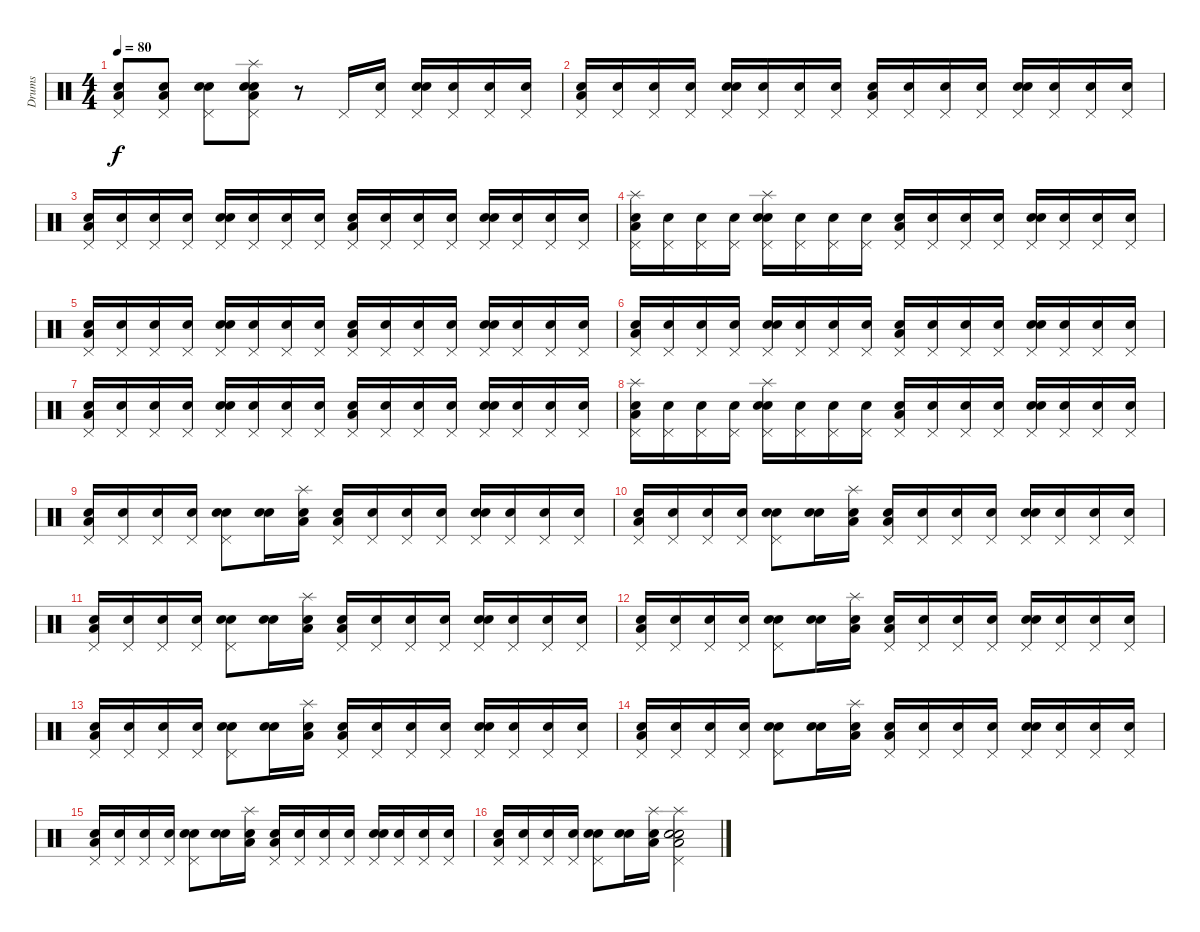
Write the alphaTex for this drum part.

\track ("Drums" "Drums") {instrument percussion}
\staff {score}
\articulation defaults
\ts (4 4)
\tempo 80
\clef neutral
\ks c
("Snare (hit)" "Low Floor Tom (hit)" "Pedal Hi-Hat (hit)").8{dy f} ("Snare (hit)" "Low Floor Tom (hit)" "Pedal Hi-Hat (hit)").8 ("Snare (hit)" "Electric Snare (hit)" "Pedal Hi-Hat (hit)").8 ("Snare (hit)" "Electric Snare (hit)" "Low Floor Tom (hit)" "Pedal Hi-Hat (hit)" "Splash (hit)").8 r.8 "Pedal Hi-Hat (hit)".16 ("Snare (hit)" "Pedal Hi-Hat (hit)").16 ("Snare (hit)" "Electric Snare (hit)" "Pedal Hi-Hat (hit)").16 ("Snare (hit)" "Pedal Hi-Hat (hit)").16 ("Snare (hit)" "Pedal Hi-Hat (hit)").16 ("Snare (hit)" "Pedal Hi-Hat (hit)").16 |
("Snare (hit)" "Low Floor Tom (hit)" "Pedal Hi-Hat (hit)").16 ("Snare (hit)" "Pedal Hi-Hat (hit)").16 ("Snare (hit)" "Pedal Hi-Hat (hit)").16 ("Snare (hit)" "Pedal Hi-Hat (hit)").16 ("Snare (hit)" "Electric Snare (hit)" "Pedal Hi-Hat (hit)").16 ("Snare (hit)" "Pedal Hi-Hat (hit)").16 ("Snare (hit)" "Pedal Hi-Hat (hit)").16 ("Snare (hit)" "Pedal Hi-Hat (hit)").16 ("Snare (hit)" "Low Floor Tom (hit)" "Pedal Hi-Hat (hit)").16 ("Snare (hit)" "Pedal Hi-Hat (hit)").16 ("Snare (hit)" "Pedal Hi-Hat (hit)").16 ("Snare (hit)" "Pedal Hi-Hat (hit)").16 ("Snare (hit)" "Electric Snare (hit)" "Pedal Hi-Hat (hit)").16 ("Snare (hit)" "Pedal Hi-Hat (hit)").16 ("Snare (hit)" "Pedal Hi-Hat (hit)").16 ("Snare (hit)" "Pedal Hi-Hat (hit)").16 |
("Snare (hit)" "Low Floor Tom (hit)" "Pedal Hi-Hat (hit)").16 ("Snare (hit)" "Pedal Hi-Hat (hit)").16 ("Snare (hit)" "Pedal Hi-Hat (hit)").16 ("Snare (hit)" "Pedal Hi-Hat (hit)").16 ("Snare (hit)" "Electric Snare (hit)" "Pedal Hi-Hat (hit)").16 ("Snare (hit)" "Pedal Hi-Hat (hit)").16 ("Snare (hit)" "Pedal Hi-Hat (hit)").16 ("Snare (hit)" "Pedal Hi-Hat (hit)").16 ("Snare (hit)" "Low Floor Tom (hit)" "Pedal Hi-Hat (hit)").16 ("Snare (hit)" "Pedal Hi-Hat (hit)").16 ("Snare (hit)" "Pedal Hi-Hat (hit)").16 ("Snare (hit)" "Pedal Hi-Hat (hit)").16 ("Snare (hit)" "Electric Snare (hit)" "Pedal Hi-Hat (hit)").16 ("Snare (hit)" "Pedal Hi-Hat (hit)").16 ("Snare (hit)" "Pedal Hi-Hat (hit)").16 ("Snare (hit)" "Pedal Hi-Hat (hit)").16 |
("Snare (hit)" "Low Floor Tom (hit)" "Pedal Hi-Hat (hit)" "Splash (hit)").16 ("Snare (hit)" "Pedal Hi-Hat (hit)").16 ("Snare (hit)" "Pedal Hi-Hat (hit)").16 ("Snare (hit)" "Pedal Hi-Hat (hit)").16 ("Snare (hit)" "Electric Snare (hit)" "Pedal Hi-Hat (hit)" "Splash (hit)").16 ("Snare (hit)" "Pedal Hi-Hat (hit)").16 ("Snare (hit)" "Pedal Hi-Hat (hit)").16 ("Snare (hit)" "Pedal Hi-Hat (hit)").16 ("Snare (hit)" "Low Floor Tom (hit)" "Pedal Hi-Hat (hit)").16 ("Snare (hit)" "Pedal Hi-Hat (hit)").16 ("Snare (hit)" "Pedal Hi-Hat (hit)").16 ("Snare (hit)" "Pedal Hi-Hat (hit)").16 ("Snare (hit)" "Electric Snare (hit)" "Pedal Hi-Hat (hit)").16 ("Snare (hit)" "Pedal Hi-Hat (hit)").16 ("Snare (hit)" "Pedal Hi-Hat (hit)").16 ("Snare (hit)" "Pedal Hi-Hat (hit)").16 |
("Snare (hit)" "Low Floor Tom (hit)" "Pedal Hi-Hat (hit)").16 ("Snare (hit)" "Pedal Hi-Hat (hit)").16 ("Snare (hit)" "Pedal Hi-Hat (hit)").16 ("Snare (hit)" "Pedal Hi-Hat (hit)").16 ("Snare (hit)" "Electric Snare (hit)" "Pedal Hi-Hat (hit)").16 ("Snare (hit)" "Pedal Hi-Hat (hit)").16 ("Snare (hit)" "Pedal Hi-Hat (hit)").16 ("Snare (hit)" "Pedal Hi-Hat (hit)").16 ("Snare (hit)" "Low Floor Tom (hit)" "Pedal Hi-Hat (hit)").16 ("Snare (hit)" "Pedal Hi-Hat (hit)").16 ("Snare (hit)" "Pedal Hi-Hat (hit)").16 ("Snare (hit)" "Pedal Hi-Hat (hit)").16 ("Snare (hit)" "Electric Snare (hit)" "Pedal Hi-Hat (hit)").16 ("Snare (hit)" "Pedal Hi-Hat (hit)").16 ("Snare (hit)" "Pedal Hi-Hat (hit)").16 ("Snare (hit)" "Pedal Hi-Hat (hit)").16 |
("Snare (hit)" "Low Floor Tom (hit)" "Pedal Hi-Hat (hit)").16 ("Snare (hit)" "Pedal Hi-Hat (hit)").16 ("Snare (hit)" "Pedal Hi-Hat (hit)").16 ("Snare (hit)" "Pedal Hi-Hat (hit)").16 ("Snare (hit)" "Electric Snare (hit)" "Pedal Hi-Hat (hit)").16 ("Snare (hit)" "Pedal Hi-Hat (hit)").16 ("Snare (hit)" "Pedal Hi-Hat (hit)").16 ("Snare (hit)" "Pedal Hi-Hat (hit)").16 ("Snare (hit)" "Low Floor Tom (hit)" "Pedal Hi-Hat (hit)").16 ("Snare (hit)" "Pedal Hi-Hat (hit)").16 ("Snare (hit)" "Pedal Hi-Hat (hit)").16 ("Snare (hit)" "Pedal Hi-Hat (hit)").16 ("Snare (hit)" "Electric Snare (hit)" "Pedal Hi-Hat (hit)").16 ("Snare (hit)" "Pedal Hi-Hat (hit)").16 ("Snare (hit)" "Pedal Hi-Hat (hit)").16 ("Snare (hit)" "Pedal Hi-Hat (hit)").16 |
("Snare (hit)" "Low Floor Tom (hit)" "Pedal Hi-Hat (hit)").16 ("Snare (hit)" "Pedal Hi-Hat (hit)").16 ("Snare (hit)" "Pedal Hi-Hat (hit)").16 ("Snare (hit)" "Pedal Hi-Hat (hit)").16 ("Snare (hit)" "Electric Snare (hit)" "Pedal Hi-Hat (hit)").16 ("Snare (hit)" "Pedal Hi-Hat (hit)").16 ("Snare (hit)" "Pedal Hi-Hat (hit)").16 ("Snare (hit)" "Pedal Hi-Hat (hit)").16 ("Snare (hit)" "Low Floor Tom (hit)" "Pedal Hi-Hat (hit)").16 ("Snare (hit)" "Pedal Hi-Hat (hit)").16 ("Snare (hit)" "Pedal Hi-Hat (hit)").16 ("Snare (hit)" "Pedal Hi-Hat (hit)").16 ("Snare (hit)" "Electric Snare (hit)" "Pedal Hi-Hat (hit)").16 ("Snare (hit)" "Pedal Hi-Hat (hit)").16 ("Snare (hit)" "Pedal Hi-Hat (hit)").16 ("Snare (hit)" "Pedal Hi-Hat (hit)").16 |
("Snare (hit)" "Low Floor Tom (hit)" "Pedal Hi-Hat (hit)" "Splash (hit)").16 ("Snare (hit)" "Pedal Hi-Hat (hit)").16 ("Snare (hit)" "Pedal Hi-Hat (hit)").16 ("Snare (hit)" "Pedal Hi-Hat (hit)").16 ("Snare (hit)" "Electric Snare (hit)" "Pedal Hi-Hat (hit)" "Splash (hit)").16 ("Snare (hit)" "Pedal Hi-Hat (hit)").16 ("Snare (hit)" "Pedal Hi-Hat (hit)").16 ("Snare (hit)" "Pedal Hi-Hat (hit)").16 ("Snare (hit)" "Low Floor Tom (hit)" "Pedal Hi-Hat (hit)").16 ("Snare (hit)" "Pedal Hi-Hat (hit)").16 ("Snare (hit)" "Pedal Hi-Hat (hit)").16 ("Snare (hit)" "Pedal Hi-Hat (hit)").16 ("Snare (hit)" "Electric Snare (hit)" "Pedal Hi-Hat (hit)").16 ("Snare (hit)" "Pedal Hi-Hat (hit)").16 ("Snare (hit)" "Pedal Hi-Hat (hit)").16 ("Snare (hit)" "Pedal Hi-Hat (hit)").16 |
("Snare (hit)" "Low Floor Tom (hit)" "Pedal Hi-Hat (hit)").16 ("Snare (hit)" "Pedal Hi-Hat (hit)").16 ("Snare (hit)" "Pedal Hi-Hat (hit)").16 ("Snare (hit)" "Pedal Hi-Hat (hit)").16 ("Snare (hit)" "Electric Snare (hit)" "Pedal Hi-Hat (hit)").8 ("Snare (hit)" "Electric Snare (hit)").16 ("Snare (hit)" "Low Floor Tom (hit)" "Splash (hit)").16 ("Snare (hit)" "Low Floor Tom (hit)" "Pedal Hi-Hat (hit)").16 ("Snare (hit)" "Pedal Hi-Hat (hit)").16 ("Snare (hit)" "Pedal Hi-Hat (hit)").16 ("Snare (hit)" "Pedal Hi-Hat (hit)").16 ("Snare (hit)" "Electric Snare (hit)" "Pedal Hi-Hat (hit)").16 ("Snare (hit)" "Pedal Hi-Hat (hit)").16 ("Snare (hit)" "Pedal Hi-Hat (hit)").16 ("Snare (hit)" "Pedal Hi-Hat (hit)").16 |
("Snare (hit)" "Low Floor Tom (hit)" "Pedal Hi-Hat (hit)").16 ("Snare (hit)" "Pedal Hi-Hat (hit)").16 ("Snare (hit)" "Pedal Hi-Hat (hit)").16 ("Snare (hit)" "Pedal Hi-Hat (hit)").16 ("Snare (hit)" "Electric Snare (hit)" "Pedal Hi-Hat (hit)").8 ("Snare (hit)" "Electric Snare (hit)").16 ("Snare (hit)" "Low Floor Tom (hit)" "Splash (hit)").16 ("Snare (hit)" "Low Floor Tom (hit)" "Pedal Hi-Hat (hit)").16 ("Snare (hit)" "Pedal Hi-Hat (hit)").16 ("Snare (hit)" "Pedal Hi-Hat (hit)").16 ("Snare (hit)" "Pedal Hi-Hat (hit)").16 ("Snare (hit)" "Electric Snare (hit)" "Pedal Hi-Hat (hit)").16 ("Snare (hit)" "Pedal Hi-Hat (hit)").16 ("Snare (hit)" "Pedal Hi-Hat (hit)").16 ("Snare (hit)" "Pedal Hi-Hat (hit)").16 |
("Snare (hit)" "Low Floor Tom (hit)" "Pedal Hi-Hat (hit)").16 ("Snare (hit)" "Pedal Hi-Hat (hit)").16 ("Snare (hit)" "Pedal Hi-Hat (hit)").16 ("Snare (hit)" "Pedal Hi-Hat (hit)").16 ("Snare (hit)" "Electric Snare (hit)" "Pedal Hi-Hat (hit)").8 ("Snare (hit)" "Electric Snare (hit)").16 ("Snare (hit)" "Low Floor Tom (hit)" "Splash (hit)").16 ("Snare (hit)" "Low Floor Tom (hit)" "Pedal Hi-Hat (hit)").16 ("Snare (hit)" "Pedal Hi-Hat (hit)").16 ("Snare (hit)" "Pedal Hi-Hat (hit)").16 ("Snare (hit)" "Pedal Hi-Hat (hit)").16 ("Snare (hit)" "Electric Snare (hit)" "Pedal Hi-Hat (hit)").16 ("Snare (hit)" "Pedal Hi-Hat (hit)").16 ("Snare (hit)" "Pedal Hi-Hat (hit)").16 ("Snare (hit)" "Pedal Hi-Hat (hit)").16 |
("Snare (hit)" "Low Floor Tom (hit)" "Pedal Hi-Hat (hit)").16 ("Snare (hit)" "Pedal Hi-Hat (hit)").16 ("Snare (hit)" "Pedal Hi-Hat (hit)").16 ("Snare (hit)" "Pedal Hi-Hat (hit)").16 ("Snare (hit)" "Electric Snare (hit)" "Pedal Hi-Hat (hit)").8 ("Snare (hit)" "Electric Snare (hit)").16 ("Snare (hit)" "Low Floor Tom (hit)" "Splash (hit)").16 ("Snare (hit)" "Low Floor Tom (hit)" "Pedal Hi-Hat (hit)").16 ("Snare (hit)" "Pedal Hi-Hat (hit)").16 ("Snare (hit)" "Pedal Hi-Hat (hit)").16 ("Snare (hit)" "Pedal Hi-Hat (hit)").16 ("Snare (hit)" "Electric Snare (hit)" "Pedal Hi-Hat (hit)").16 ("Snare (hit)" "Pedal Hi-Hat (hit)").16 ("Snare (hit)" "Pedal Hi-Hat (hit)").16 ("Snare (hit)" "Pedal Hi-Hat (hit)").16 |
("Snare (hit)" "Low Floor Tom (hit)" "Pedal Hi-Hat (hit)").16 ("Snare (hit)" "Pedal Hi-Hat (hit)").16 ("Snare (hit)" "Pedal Hi-Hat (hit)").16 ("Snare (hit)" "Pedal Hi-Hat (hit)").16 ("Snare (hit)" "Electric Snare (hit)" "Pedal Hi-Hat (hit)").8 ("Snare (hit)" "Electric Snare (hit)").16 ("Snare (hit)" "Low Floor Tom (hit)" "Splash (hit)").16 ("Snare (hit)" "Low Floor Tom (hit)" "Pedal Hi-Hat (hit)").16 ("Snare (hit)" "Pedal Hi-Hat (hit)").16 ("Snare (hit)" "Pedal Hi-Hat (hit)").16 ("Snare (hit)" "Pedal Hi-Hat (hit)").16 ("Snare (hit)" "Electric Snare (hit)" "Pedal Hi-Hat (hit)").16 ("Snare (hit)" "Pedal Hi-Hat (hit)").16 ("Snare (hit)" "Pedal Hi-Hat (hit)").16 ("Snare (hit)" "Pedal Hi-Hat (hit)").16 |
("Snare (hit)" "Low Floor Tom (hit)" "Pedal Hi-Hat (hit)").16 ("Snare (hit)" "Pedal Hi-Hat (hit)").16 ("Snare (hit)" "Pedal Hi-Hat (hit)").16 ("Snare (hit)" "Pedal Hi-Hat (hit)").16 ("Snare (hit)" "Electric Snare (hit)" "Pedal Hi-Hat (hit)").8 ("Snare (hit)" "Electric Snare (hit)").16 ("Snare (hit)" "Low Floor Tom (hit)" "Splash (hit)").16 ("Snare (hit)" "Low Floor Tom (hit)" "Pedal Hi-Hat (hit)").16 ("Snare (hit)" "Pedal Hi-Hat (hit)").16 ("Snare (hit)" "Pedal Hi-Hat (hit)").16 ("Snare (hit)" "Pedal Hi-Hat (hit)").16 ("Snare (hit)" "Electric Snare (hit)" "Pedal Hi-Hat (hit)").16 ("Snare (hit)" "Pedal Hi-Hat (hit)").16 ("Snare (hit)" "Pedal Hi-Hat (hit)").16 ("Snare (hit)" "Pedal Hi-Hat (hit)").16 |
("Snare (hit)" "Low Floor Tom (hit)" "Pedal Hi-Hat (hit)").16 ("Snare (hit)" "Pedal Hi-Hat (hit)").16 ("Snare (hit)" "Pedal Hi-Hat (hit)").16 ("Snare (hit)" "Pedal Hi-Hat (hit)").16 ("Snare (hit)" "Electric Snare (hit)" "Pedal Hi-Hat (hit)").8 ("Snare (hit)" "Electric Snare (hit)").16 ("Snare (hit)" "Low Floor Tom (hit)" "Splash (hit)").16 ("Snare (hit)" "Low Floor Tom (hit)" "Pedal Hi-Hat (hit)").16 ("Snare (hit)" "Pedal Hi-Hat (hit)").16 ("Snare (hit)" "Pedal Hi-Hat (hit)").16 ("Snare (hit)" "Pedal Hi-Hat (hit)").16 ("Snare (hit)" "Electric Snare (hit)" "Pedal Hi-Hat (hit)").16 ("Snare (hit)" "Pedal Hi-Hat (hit)").16 ("Snare (hit)" "Pedal Hi-Hat (hit)").16 ("Snare (hit)" "Pedal Hi-Hat (hit)").16 |
("Snare (hit)" "Low Floor Tom (hit)" "Pedal Hi-Hat (hit)").16 ("Snare (hit)" "Pedal Hi-Hat (hit)").16 ("Snare (hit)" "Pedal Hi-Hat (hit)").16 ("Snare (hit)" "Pedal Hi-Hat (hit)").16 ("Snare (hit)" "Electric Snare (hit)" "Pedal Hi-Hat (hit)").8 ("Snare (hit)" "Electric Snare (hit)").16 ("Snare (hit)" "Low Floor Tom (hit)" "Splash (hit)").16 ("Snare (hit)" "Electric Snare (hit)" "Low Floor Tom (hit)" "Pedal Hi-Hat (hit)" "Splash (hit)").2
